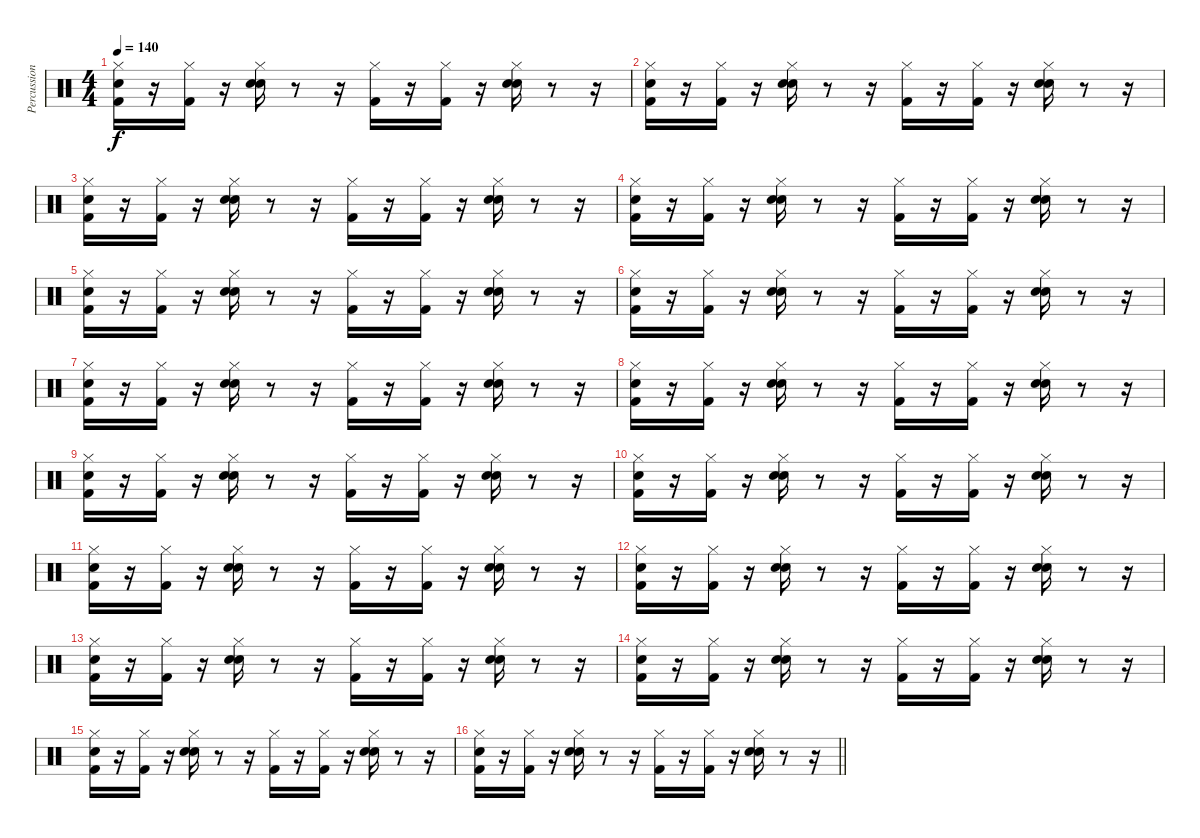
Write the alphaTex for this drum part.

\track ("Percussion" "Percussion") {instrument percussion}
\staff {score}
\articulation defaults
\ts (4 4)
\tempo 140
\clef neutral
\ks c
("Snare (hit)" "Kick (hit) 2" "Hi-Hat (closed)").16{dy f} r.16 ("Kick (hit) 2" "Hi-Hat (closed)").16 r.16 ("Hand Clap (hit)" "Hi-Hat (closed)" "Snare (hit) 2").16 r.8 r.16 ("Hi-Hat (closed)" "Kick (hit) 2").16 r.16 ("Hi-Hat (closed)" "Kick (hit) 2").16 r.16 ("Snare (hit) 2" "Hand Clap (hit)" "Hi-Hat (closed)").16 r.8 r.16 |
("Snare (hit)" "Kick (hit) 2" "Hi-Hat (closed)").16 r.16 ("Kick (hit) 2" "Hi-Hat (closed)").16 r.16 ("Hand Clap (hit)" "Hi-Hat (closed)" "Snare (hit) 2").16 r.8 r.16 ("Hi-Hat (closed)" "Kick (hit) 2").16 r.16 ("Hi-Hat (closed)" "Kick (hit) 2").16 r.16 ("Snare (hit) 2" "Hand Clap (hit)" "Hi-Hat (closed)").16 r.8 r.16 |
("Snare (hit)" "Kick (hit) 2" "Hi-Hat (closed)").16 r.16 ("Kick (hit) 2" "Hi-Hat (closed)").16 r.16 ("Hand Clap (hit)" "Hi-Hat (closed)" "Snare (hit) 2").16 r.8 r.16 ("Hi-Hat (closed)" "Kick (hit) 2").16 r.16 ("Hi-Hat (closed)" "Kick (hit) 2").16 r.16 ("Snare (hit) 2" "Hand Clap (hit)" "Hi-Hat (closed)").16 r.8 r.16 |
("Snare (hit)" "Kick (hit) 2" "Hi-Hat (closed)").16 r.16 ("Kick (hit) 2" "Hi-Hat (closed)").16 r.16 ("Hand Clap (hit)" "Hi-Hat (closed)" "Snare (hit) 2").16 r.8 r.16 ("Hi-Hat (closed)" "Kick (hit) 2").16 r.16 ("Hi-Hat (closed)" "Kick (hit) 2").16 r.16 ("Snare (hit) 2" "Hand Clap (hit)" "Hi-Hat (closed)").16 r.8 r.16 |
("Snare (hit)" "Kick (hit) 2" "Hi-Hat (closed)").16 r.16 ("Kick (hit) 2" "Hi-Hat (closed)").16 r.16 ("Hand Clap (hit)" "Hi-Hat (closed)" "Snare (hit) 2").16 r.8 r.16 ("Hi-Hat (closed)" "Kick (hit) 2").16 r.16 ("Hi-Hat (closed)" "Kick (hit) 2").16 r.16 ("Snare (hit) 2" "Hand Clap (hit)" "Hi-Hat (closed)").16 r.8 r.16 |
("Snare (hit)" "Kick (hit) 2" "Hi-Hat (closed)").16 r.16 ("Kick (hit) 2" "Hi-Hat (closed)").16 r.16 ("Hand Clap (hit)" "Hi-Hat (closed)" "Snare (hit) 2").16 r.8 r.16 ("Hi-Hat (closed)" "Kick (hit) 2").16 r.16 ("Hi-Hat (closed)" "Kick (hit) 2").16 r.16 ("Snare (hit) 2" "Hand Clap (hit)" "Hi-Hat (closed)").16 r.8 r.16 |
("Snare (hit)" "Kick (hit) 2" "Hi-Hat (closed)").16 r.16 ("Kick (hit) 2" "Hi-Hat (closed)").16 r.16 ("Hand Clap (hit)" "Hi-Hat (closed)" "Snare (hit) 2").16 r.8 r.16 ("Hi-Hat (closed)" "Kick (hit) 2").16 r.16 ("Hi-Hat (closed)" "Kick (hit) 2").16 r.16 ("Snare (hit) 2" "Hand Clap (hit)" "Hi-Hat (closed)").16 r.8 r.16 |
("Snare (hit)" "Kick (hit) 2" "Hi-Hat (closed)").16 r.16 ("Kick (hit) 2" "Hi-Hat (closed)").16 r.16 ("Hand Clap (hit)" "Hi-Hat (closed)" "Snare (hit) 2").16 r.8 r.16 ("Hi-Hat (closed)" "Kick (hit) 2").16 r.16 ("Hi-Hat (closed)" "Kick (hit) 2").16 r.16 ("Snare (hit) 2" "Hand Clap (hit)" "Hi-Hat (closed)").16 r.8 r.16 |
("Snare (hit)" "Kick (hit) 2" "Hi-Hat (closed)").16 r.16 ("Kick (hit) 2" "Hi-Hat (closed)").16 r.16 ("Hand Clap (hit)" "Hi-Hat (closed)" "Snare (hit) 2").16 r.8 r.16 ("Hi-Hat (closed)" "Kick (hit) 2").16 r.16 ("Hi-Hat (closed)" "Kick (hit) 2").16 r.16 ("Snare (hit) 2" "Hand Clap (hit)" "Hi-Hat (closed)").16 r.8 r.16 |
("Snare (hit)" "Kick (hit) 2" "Hi-Hat (closed)").16 r.16 ("Kick (hit) 2" "Hi-Hat (closed)").16 r.16 ("Hand Clap (hit)" "Hi-Hat (closed)" "Snare (hit) 2").16 r.8 r.16 ("Hi-Hat (closed)" "Kick (hit) 2").16 r.16 ("Hi-Hat (closed)" "Kick (hit) 2").16 r.16 ("Snare (hit) 2" "Hand Clap (hit)" "Hi-Hat (closed)").16 r.8 r.16 |
("Snare (hit)" "Kick (hit) 2" "Hi-Hat (closed)").16 r.16 ("Kick (hit) 2" "Hi-Hat (closed)").16 r.16 ("Hand Clap (hit)" "Hi-Hat (closed)" "Snare (hit) 2").16 r.8 r.16 ("Hi-Hat (closed)" "Kick (hit) 2").16 r.16 ("Hi-Hat (closed)" "Kick (hit) 2").16 r.16 ("Snare (hit) 2" "Hand Clap (hit)" "Hi-Hat (closed)").16 r.8 r.16 |
("Snare (hit)" "Kick (hit) 2" "Hi-Hat (closed)").16 r.16 ("Kick (hit) 2" "Hi-Hat (closed)").16 r.16 ("Hand Clap (hit)" "Hi-Hat (closed)" "Snare (hit) 2").16 r.8 r.16 ("Hi-Hat (closed)" "Kick (hit) 2").16 r.16 ("Hi-Hat (closed)" "Kick (hit) 2").16 r.16 ("Snare (hit) 2" "Hand Clap (hit)" "Hi-Hat (closed)").16 r.8 r.16 |
("Snare (hit)" "Kick (hit) 2" "Hi-Hat (closed)").16 r.16 ("Kick (hit) 2" "Hi-Hat (closed)").16 r.16 ("Hand Clap (hit)" "Hi-Hat (closed)" "Snare (hit) 2").16 r.8 r.16 ("Hi-Hat (closed)" "Kick (hit) 2").16 r.16 ("Hi-Hat (closed)" "Kick (hit) 2").16 r.16 ("Snare (hit) 2" "Hand Clap (hit)" "Hi-Hat (closed)").16 r.8 r.16 |
("Snare (hit)" "Kick (hit) 2" "Hi-Hat (closed)").16 r.16 ("Kick (hit) 2" "Hi-Hat (closed)").16 r.16 ("Hand Clap (hit)" "Hi-Hat (closed)" "Snare (hit) 2").16 r.8 r.16 ("Hi-Hat (closed)" "Kick (hit) 2").16 r.16 ("Hi-Hat (closed)" "Kick (hit) 2").16 r.16 ("Snare (hit) 2" "Hand Clap (hit)" "Hi-Hat (closed)").16 r.8 r.16 |
("Snare (hit)" "Kick (hit) 2" "Hi-Hat (closed)").16 r.16 ("Kick (hit) 2" "Hi-Hat (closed)").16 r.16 ("Hand Clap (hit)" "Hi-Hat (closed)" "Snare (hit) 2").16 r.8 r.16 ("Hi-Hat (closed)" "Kick (hit) 2").16 r.16 ("Hi-Hat (closed)" "Kick (hit) 2").16 r.16 ("Snare (hit) 2" "Hand Clap (hit)" "Hi-Hat (closed)").16 r.8 r.16 |
\barLineRight lightlight
("Snare (hit)" "Kick (hit) 2" "Hi-Hat (closed)").16 r.16 ("Kick (hit) 2" "Hi-Hat (closed)").16 r.16 ("Hand Clap (hit)" "Hi-Hat (closed)" "Snare (hit) 2").16 r.8 r.16 ("Hi-Hat (closed)" "Kick (hit) 2").16 r.16 ("Hi-Hat (closed)" "Kick (hit) 2").16 r.16 ("Snare (hit) 2" "Hand Clap (hit)" "Hi-Hat (closed)").16 r.8 r.16
